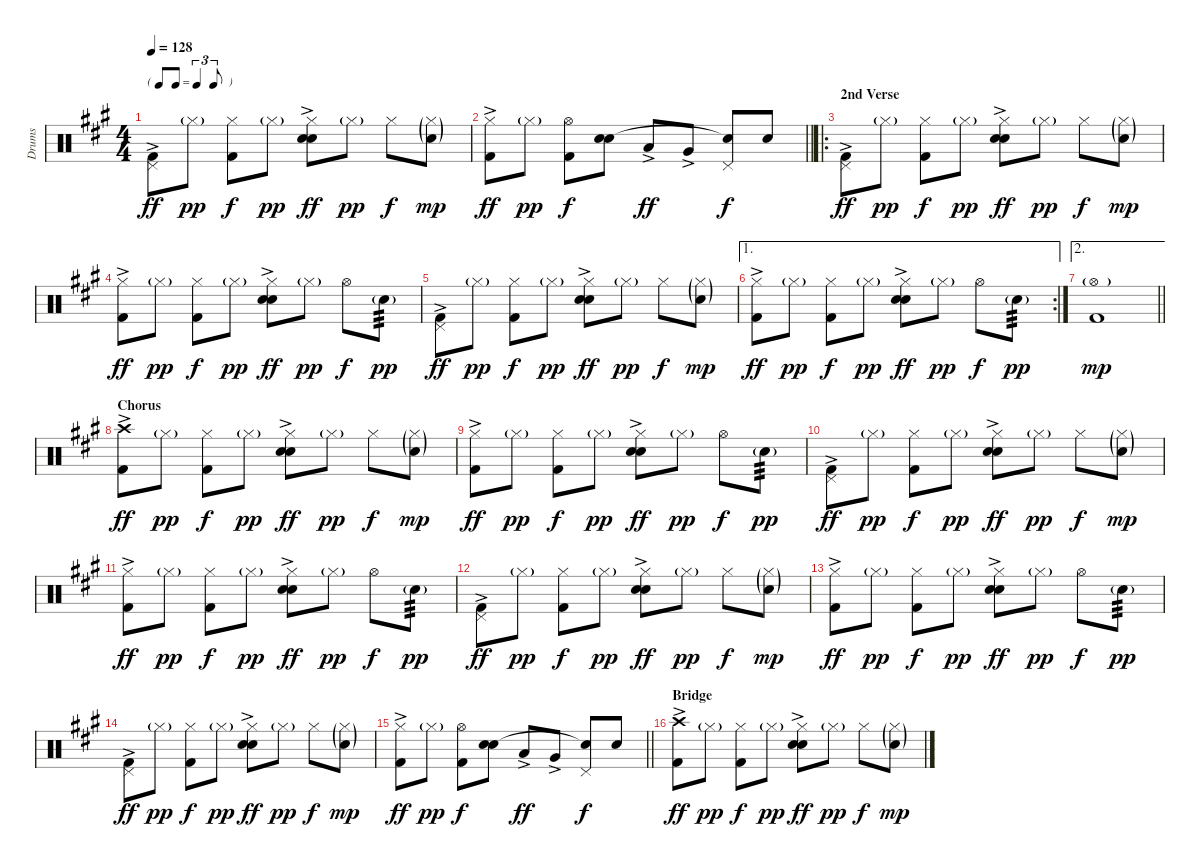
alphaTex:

\track ("Drums" "Drums") {instrument percussion}
\staff {score}
\articulation defaults
\ts (4 4)
\tf triplet8th
\tempo 128
\clef neutral
\ks a
("Pedal Hi-Hat (hit)" "Kick (hit) 2"{ac}).8{dy ff} "Hi-Hat (closed)"{g}.8{dy pp} ("Hi-Hat (closed)" "Kick (hit) 2").8{dy f} "Hi-Hat (closed)"{g}.8{dy pp} ("Hi-Hat (closed)" "Electric Snare (hit)"{ac} "Snare (hit) 2").8{dy ff} "Hi-Hat (closed)"{g}.8{dy pp} "Hi-Hat (closed)".8{dy f} ("Hi-Hat (closed)"{g} "Snare (hit) 2"{g}).8{dy mp} |
\barLineRight lightlight
("Hi-Hat (closed)" "Kick (hit) 2"{ac}).8{dy ff} "Hi-Hat (closed)"{g}.8{dy pp} ("Hi-Hat (open)" "Kick (hit) 2").8{dy f} ("Electric Snare (hit)" "Snare (hit) 2").8 "Low Tom (hit)"{ac}.8{dy ff} "Very Low Tom (hit)"{ac}.8 ("Pedal Hi-Hat (hit)" "Snare (hit)"{t}).8{dy f} "Snare (hit) 2".8 |
\ro
\section ("" "2nd Verse")
("Pedal Hi-Hat (hit)" "Kick (hit) 2"{ac}).8{dy ff} "Hi-Hat (closed)"{g}.8{dy pp} ("Hi-Hat (closed)" "Kick (hit) 2").8{dy f} "Hi-Hat (closed)"{g}.8{dy pp} ("Hi-Hat (closed)" "Electric Snare (hit)"{ac} "Snare (hit) 2").8{dy ff} "Hi-Hat (closed)"{g}.8{dy pp} "Hi-Hat (closed)".8{dy f} ("Hi-Hat (closed)"{g} "Snare (hit) 2"{g}).8{dy mp} |
("Hi-Hat (closed)" "Kick (hit) 2"{ac}).8{dy ff} "Hi-Hat (closed)"{g}.8{dy pp} ("Hi-Hat (closed)" "Kick (hit) 2").8{dy f} "Hi-Hat (closed)"{g}.8{dy pp} ("Hi-Hat (closed)" "Electric Snare (hit)"{ac} "Snare (hit) 2").8{dy ff} "Hi-Hat (closed)"{g}.8{dy pp} "Hi-Hat (open)".8{dy f} "Snare (hit) 2"{g}.8{tp 3 dy pp} |
("Pedal Hi-Hat (hit)" "Kick (hit) 2"{ac}).8{dy ff} "Hi-Hat (closed)"{g}.8{dy pp} ("Hi-Hat (closed)" "Kick (hit) 2").8{dy f} "Hi-Hat (closed)"{g}.8{dy pp} ("Hi-Hat (closed)" "Electric Snare (hit)"{ac} "Snare (hit) 2").8{dy ff} "Hi-Hat (closed)"{g}.8{dy pp} "Hi-Hat (closed)".8{dy f} ("Hi-Hat (closed)"{g} "Snare (hit) 2"{g}).8{dy mp} |
\ae 1
\rc 2
("Hi-Hat (closed)" "Kick (hit) 2"{ac}).8{dy ff} "Hi-Hat (closed)"{g}.8{dy pp} ("Hi-Hat (closed)" "Kick (hit) 2").8{dy f} "Hi-Hat (closed)"{g}.8{dy pp} ("Hi-Hat (closed)" "Electric Snare (hit)"{ac} "Snare (hit) 2").8{dy ff} "Hi-Hat (closed)"{g}.8{dy pp} "Hi-Hat (open)".8{dy f} "Snare (hit) 2"{g}.8{tp 3 dy pp} |
\ae 2
\barLineRight lightlight
("Hi-Hat (open)"{g} "Kick (hit) 2").1{dy mp} |
\section ("" "Chorus")
("Crash high (hit)" "Kick (hit) 2"{ac}).8{dy ff} "Hi-Hat (closed)"{g}.8{dy pp} ("Hi-Hat (closed)" "Kick (hit) 2").8{dy f} "Hi-Hat (closed)"{g}.8{dy pp} ("Hi-Hat (closed)" "Electric Snare (hit)"{ac} "Snare (hit) 2").8{dy ff} "Hi-Hat (closed)"{g}.8{dy pp} "Hi-Hat (closed)".8{dy f} ("Hi-Hat (closed)"{g} "Snare (hit) 2"{g}).8{dy mp} |
("Hi-Hat (closed)" "Kick (hit) 2"{ac}).8{dy ff} "Hi-Hat (closed)"{g}.8{dy pp} ("Hi-Hat (closed)" "Kick (hit) 2").8{dy f} "Hi-Hat (closed)"{g}.8{dy pp} ("Hi-Hat (closed)" "Electric Snare (hit)"{ac} "Snare (hit) 2").8{dy ff} "Hi-Hat (closed)"{g}.8{dy pp} "Hi-Hat (open)".8{dy f} "Snare (hit) 2"{g}.8{tp 3 dy pp} |
("Pedal Hi-Hat (hit)" "Kick (hit) 2"{ac}).8{dy ff} "Hi-Hat (closed)"{g}.8{dy pp} ("Hi-Hat (closed)" "Kick (hit) 2").8{dy f} "Hi-Hat (closed)"{g}.8{dy pp} ("Hi-Hat (closed)" "Electric Snare (hit)"{ac} "Snare (hit) 2").8{dy ff} "Hi-Hat (closed)"{g}.8{dy pp} "Hi-Hat (closed)".8{dy f} ("Hi-Hat (closed)"{g} "Snare (hit) 2"{g}).8{dy mp} |
("Hi-Hat (closed)" "Kick (hit) 2"{ac}).8{dy ff} "Hi-Hat (closed)"{g}.8{dy pp} ("Hi-Hat (closed)" "Kick (hit) 2").8{dy f} "Hi-Hat (closed)"{g}.8{dy pp} ("Hi-Hat (closed)" "Electric Snare (hit)"{ac} "Snare (hit) 2").8{dy ff} "Hi-Hat (closed)"{g}.8{dy pp} "Hi-Hat (open)".8{dy f} "Snare (hit) 2"{g}.8{tp 3 dy pp} |
("Pedal Hi-Hat (hit)" "Kick (hit) 2"{ac}).8{dy ff} "Hi-Hat (closed)"{g}.8{dy pp} ("Hi-Hat (closed)" "Kick (hit) 2").8{dy f} "Hi-Hat (closed)"{g}.8{dy pp} ("Hi-Hat (closed)" "Electric Snare (hit)"{ac} "Snare (hit) 2").8{dy ff} "Hi-Hat (closed)"{g}.8{dy pp} "Hi-Hat (closed)".8{dy f} ("Hi-Hat (closed)"{g} "Snare (hit) 2"{g}).8{dy mp} |
("Hi-Hat (closed)" "Kick (hit) 2"{ac}).8{dy ff} "Hi-Hat (closed)"{g}.8{dy pp} ("Hi-Hat (closed)" "Kick (hit) 2").8{dy f} "Hi-Hat (closed)"{g}.8{dy pp} ("Hi-Hat (closed)" "Electric Snare (hit)"{ac} "Snare (hit) 2").8{dy ff} "Hi-Hat (closed)"{g}.8{dy pp} "Hi-Hat (open)".8{dy f} "Snare (hit) 2"{g}.8{tp 3 dy pp} |
("Pedal Hi-Hat (hit)" "Kick (hit) 2"{ac}).8{dy ff} "Hi-Hat (closed)"{g}.8{dy pp} ("Hi-Hat (closed)" "Kick (hit) 2").8{dy f} "Hi-Hat (closed)"{g}.8{dy pp} ("Hi-Hat (closed)" "Electric Snare (hit)"{ac} "Snare (hit) 2").8{dy ff} "Hi-Hat (closed)"{g}.8{dy pp} "Hi-Hat (closed)".8{dy f} ("Hi-Hat (closed)"{g} "Snare (hit) 2"{g}).8{dy mp} |
\barLineRight lightlight
("Hi-Hat (closed)" "Kick (hit) 2"{ac}).8{dy ff} "Hi-Hat (closed)"{g}.8{dy pp} ("Hi-Hat (open)" "Kick (hit) 2").8{dy f} ("Electric Snare (hit)" "Snare (hit) 2").8 "Low Tom (hit)"{ac}.8{dy ff} "Very Low Tom (hit)"{ac}.8 ("Pedal Hi-Hat (hit)" "Snare (hit)"{t}).8{dy f} "Snare (hit) 2".8 |
\section ("" "Bridge")
("Crash high (hit)" "Kick (hit) 2"{ac}).8{dy ff} "Hi-Hat (closed)"{g}.8{dy pp} ("Hi-Hat (closed)" "Kick (hit) 2").8{dy f} "Hi-Hat (closed)"{g}.8{dy pp} ("Hi-Hat (closed)" "Electric Snare (hit)"{ac} "Snare (hit) 2").8{dy ff} "Hi-Hat (closed)"{g}.8{dy pp} "Hi-Hat (closed)".8{dy f} ("Hi-Hat (closed)"{g} "Snare (hit) 2"{g}).8{dy mp}
